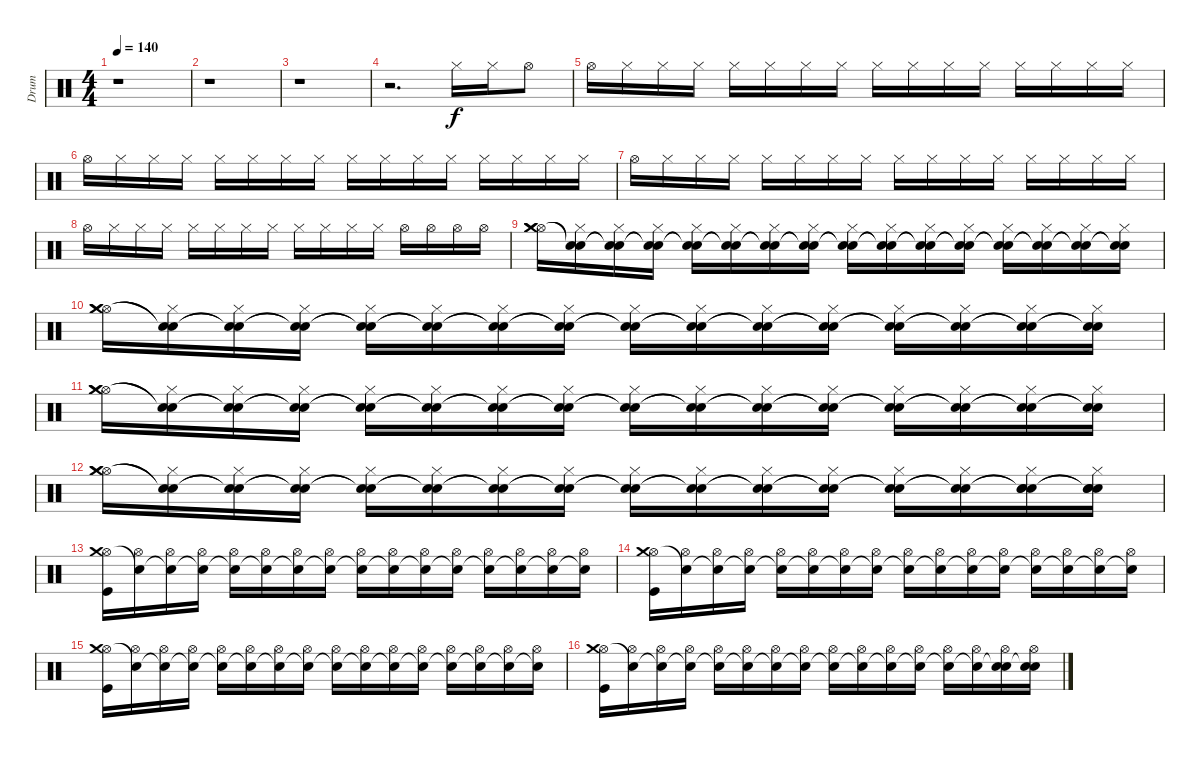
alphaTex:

\track ("Drum" "Drum") {instrument percussion}
\staff {score}
\articulation defaults
\ts (4 4)
\tempo 140
\clef neutral
\ks c
r.1{dy f} |
r.1 |
r.1 |
r.2{d} "Hi-Hat (closed)".16 "Hi-Hat (closed)".16 "Hi-Hat (open)".8 |
"Hi-Hat (open)".16 "Hi-Hat (closed)".16 "Hi-Hat (closed)".16 "Hi-Hat (closed)".16 "Hi-Hat (closed)".16 "Hi-Hat (closed)".16 "Hi-Hat (closed)".16 "Hi-Hat (closed)".16 "Hi-Hat (closed)".16 "Hi-Hat (closed)".16 "Hi-Hat (closed)".16 "Hi-Hat (closed)".16 "Hi-Hat (closed)".16 "Hi-Hat (closed)".16 "Hi-Hat (closed)".16 "Hi-Hat (closed)".16 |
"Hi-Hat (open)".16 "Hi-Hat (closed)".16 "Hi-Hat (closed)".16 "Hi-Hat (closed)".16 "Hi-Hat (closed)".16 "Hi-Hat (closed)".16 "Hi-Hat (closed)".16 "Hi-Hat (closed)".16 "Hi-Hat (closed)".16 "Hi-Hat (closed)".16 "Hi-Hat (closed)".16 "Hi-Hat (closed)".16 "Hi-Hat (closed)".16 "Hi-Hat (closed)".16 "Hi-Hat (closed)".16 "Hi-Hat (closed)".16 |
"Hi-Hat (open)".16 "Hi-Hat (closed)".16 "Hi-Hat (closed)".16 "Hi-Hat (closed)".16 "Hi-Hat (closed)".16 "Hi-Hat (closed)".16 "Hi-Hat (closed)".16 "Hi-Hat (closed)".16 "Hi-Hat (closed)".16 "Hi-Hat (closed)".16 "Hi-Hat (closed)".16 "Hi-Hat (closed)".16 "Hi-Hat (closed)".16 "Hi-Hat (closed)".16 "Hi-Hat (closed)".16 "Hi-Hat (closed)".16 |
"Hi-Hat (open)".16 "Hi-Hat (closed)".16 "Hi-Hat (closed)".16 "Hi-Hat (closed)".16 "Hi-Hat (closed)".16 "Hi-Hat (closed)".16 "Hi-Hat (closed)".16 "Hi-Hat (closed)".16 "Hi-Hat (closed)".16 "Hi-Hat (closed)".16 "Hi-Hat (closed)".16 "Hi-Hat (closed)".16 "Hi-Hat (open)".16 "Hi-Hat (open)".16 "Hi-Hat (open)".16 "Hi-Hat (open)".16 |
("Hi-Hat (open)" "Crash medium (hit)" "Crash medium (hit)").16 ("Hi-Hat (closed)" "Snare (hit)"{t} "Snare (hit)"{t}).16 ("Hi-Hat (closed)" "Snare (hit)"{t} "Snare (hit)"{t}).16 ("Hi-Hat (closed)" "Snare (hit)"{t} "Snare (hit)"{t}).16 ("Hi-Hat (closed)" "Snare (hit)"{t} "Snare (hit)"{t}).16 ("Hi-Hat (closed)" "Snare (hit)"{t} "Snare (hit)"{t}).16 ("Hi-Hat (closed)" "Snare (hit)"{t} "Snare (hit)"{t}).16 ("Hi-Hat (closed)" "Snare (hit)"{t} "Snare (hit)"{t}).16 ("Hi-Hat (closed)" "Snare (hit)"{t} "Snare (hit)"{t}).16 ("Hi-Hat (closed)" "Snare (hit)"{t} "Snare (hit)"{t}).16 ("Hi-Hat (closed)" "Snare (hit)"{t} "Snare (hit)"{t}).16 ("Hi-Hat (closed)" "Snare (hit)"{t} "Snare (hit)"{t}).16 ("Hi-Hat (closed)" "Snare (hit)"{t} "Snare (hit)"{t}).16 ("Hi-Hat (closed)" "Snare (hit)"{t} "Snare (hit)"{t}).16 ("Hi-Hat (closed)" "Snare (hit)"{t} "Snare (hit)"{t}).16 ("Hi-Hat (closed)" "Snare (hit)"{t} "Snare (hit)"{t}).16 |
("Hi-Hat (open)" "Crash medium (hit)" "Crash medium (hit)").16 ("Hi-Hat (closed)" "Snare (hit)"{t} "Snare (hit)"{t}).16 ("Hi-Hat (closed)" "Snare (hit)"{t} "Snare (hit)"{t}).16 ("Hi-Hat (closed)" "Snare (hit)"{t} "Snare (hit)"{t}).16 ("Hi-Hat (closed)" "Snare (hit)"{t} "Snare (hit)"{t}).16 ("Hi-Hat (closed)" "Snare (hit)"{t} "Snare (hit)"{t}).16 ("Hi-Hat (closed)" "Snare (hit)"{t} "Snare (hit)"{t}).16 ("Hi-Hat (closed)" "Snare (hit)"{t} "Snare (hit)"{t}).16 ("Hi-Hat (closed)" "Snare (hit)"{t} "Snare (hit)"{t}).16 ("Hi-Hat (closed)" "Snare (hit)"{t} "Snare (hit)"{t}).16 ("Hi-Hat (closed)" "Snare (hit)"{t} "Snare (hit)"{t}).16 ("Hi-Hat (closed)" "Snare (hit)"{t} "Snare (hit)"{t}).16 ("Hi-Hat (closed)" "Snare (hit)"{t} "Snare (hit)"{t}).16 ("Hi-Hat (closed)" "Snare (hit)"{t} "Snare (hit)"{t}).16 ("Hi-Hat (closed)" "Snare (hit)"{t} "Snare (hit)"{t}).16 ("Hi-Hat (closed)" "Snare (hit)"{t} "Snare (hit)"{t}).16 |
("Hi-Hat (open)" "Crash medium (hit)" "Crash medium (hit)").16 ("Hi-Hat (closed)" "Snare (hit)"{t} "Snare (hit)"{t}).16 ("Hi-Hat (closed)" "Snare (hit)"{t} "Snare (hit)"{t}).16 ("Hi-Hat (closed)" "Snare (hit)"{t} "Snare (hit)"{t}).16 ("Hi-Hat (closed)" "Snare (hit)"{t} "Snare (hit)"{t}).16 ("Hi-Hat (closed)" "Snare (hit)"{t} "Snare (hit)"{t}).16 ("Hi-Hat (closed)" "Snare (hit)"{t} "Snare (hit)"{t}).16 ("Hi-Hat (closed)" "Snare (hit)"{t} "Snare (hit)"{t}).16 ("Hi-Hat (closed)" "Snare (hit)"{t} "Snare (hit)"{t}).16 ("Hi-Hat (closed)" "Snare (hit)"{t} "Snare (hit)"{t}).16 ("Hi-Hat (closed)" "Snare (hit)"{t} "Snare (hit)"{t}).16 ("Hi-Hat (closed)" "Snare (hit)"{t} "Snare (hit)"{t}).16 ("Hi-Hat (closed)" "Snare (hit)"{t} "Snare (hit)"{t}).16 ("Hi-Hat (closed)" "Snare (hit)"{t} "Snare (hit)"{t}).16 ("Hi-Hat (closed)" "Snare (hit)"{t} "Snare (hit)"{t}).16 ("Hi-Hat (closed)" "Snare (hit)"{t} "Snare (hit)"{t}).16 |
("Hi-Hat (open)" "Crash medium (hit)" "Crash medium (hit)").16 ("Hi-Hat (closed)" "Snare (hit)"{t} "Snare (hit)"{t}).16 ("Hi-Hat (closed)" "Snare (hit)"{t} "Snare (hit)"{t}).16 ("Hi-Hat (closed)" "Snare (hit)"{t} "Snare (hit)"{t}).16 ("Hi-Hat (closed)" "Snare (hit)"{t} "Snare (hit)"{t}).16 ("Hi-Hat (closed)" "Snare (hit)"{t} "Snare (hit)"{t}).16 ("Hi-Hat (closed)" "Snare (hit)"{t} "Snare (hit)"{t}).16 ("Hi-Hat (closed)" "Snare (hit)"{t} "Snare (hit)"{t}).16 ("Hi-Hat (closed)" "Snare (hit)"{t} "Snare (hit)"{t}).16 ("Hi-Hat (closed)" "Snare (hit)"{t} "Snare (hit)"{t}).16 ("Hi-Hat (closed)" "Snare (hit)"{t} "Snare (hit)"{t}).16 ("Hi-Hat (closed)" "Snare (hit)"{t} "Snare (hit)"{t}).16 ("Hi-Hat (closed)" "Snare (hit)"{t} "Snare (hit)"{t}).16 ("Hi-Hat (closed)" "Snare (hit)"{t} "Snare (hit)"{t}).16 ("Hi-Hat (closed)" "Snare (hit)"{t} "Snare (hit)"{t} "Snare (hit) 2").16 ("Hi-Hat (closed)" "Snare (hit)"{t} "Snare (hit)"{t} "Snare (hit) 2").16 |
("Hi-Hat (open)" "Crash medium (hit)" "Kick (hit)").16 ("Hi-Hat (open)" "Snare (hit)"{t}).16 ("Hi-Hat (open)" "Snare (hit)"{t}).16 ("Hi-Hat (open)" "Snare (hit)"{t}).16 ("Hi-Hat (open)" "Snare (hit)"{t}).16 ("Hi-Hat (open)" "Snare (hit)"{t}).16 ("Hi-Hat (open)" "Snare (hit)"{t}).16 ("Hi-Hat (open)" "Snare (hit)"{t}).16 ("Hi-Hat (open)" "Snare (hit)"{t}).16 ("Hi-Hat (open)" "Snare (hit)"{t}).16 ("Hi-Hat (open)" "Snare (hit)"{t}).16 ("Hi-Hat (open)" "Snare (hit)"{t}).16 ("Hi-Hat (open)" "Snare (hit)"{t}).16 ("Hi-Hat (open)" "Snare (hit)"{t}).16 ("Hi-Hat (open)" "Snare (hit)"{t}).16 ("Hi-Hat (open)" "Snare (hit)"{t}).16 |
("Hi-Hat (open)" "Crash medium (hit)" "Kick (hit)").16 ("Hi-Hat (open)" "Snare (hit)"{t}).16 ("Hi-Hat (open)" "Snare (hit)"{t}).16 ("Hi-Hat (open)" "Snare (hit)"{t}).16 ("Hi-Hat (open)" "Snare (hit)"{t}).16 ("Hi-Hat (open)" "Snare (hit)"{t}).16 ("Hi-Hat (open)" "Snare (hit)"{t}).16 ("Hi-Hat (open)" "Snare (hit)"{t}).16 ("Hi-Hat (open)" "Snare (hit)"{t}).16 ("Hi-Hat (open)" "Snare (hit)"{t}).16 ("Hi-Hat (open)" "Snare (hit)"{t}).16 ("Hi-Hat (open)" "Snare (hit)"{t}).16 ("Hi-Hat (open)" "Snare (hit)"{t}).16 ("Hi-Hat (open)" "Snare (hit)"{t}).16 ("Hi-Hat (open)" "Snare (hit)"{t}).16 ("Hi-Hat (open)" "Snare (hit)"{t}).16 |
("Hi-Hat (open)" "Crash medium (hit)" "Kick (hit)").16 ("Hi-Hat (open)" "Snare (hit)"{t}).16 ("Hi-Hat (open)" "Snare (hit)"{t}).16 ("Hi-Hat (open)" "Snare (hit)"{t}).16 ("Hi-Hat (open)" "Snare (hit)"{t}).16 ("Hi-Hat (open)" "Snare (hit)"{t}).16 ("Hi-Hat (open)" "Snare (hit)"{t}).16 ("Hi-Hat (open)" "Snare (hit)"{t}).16 ("Hi-Hat (open)" "Snare (hit)"{t}).16 ("Hi-Hat (open)" "Snare (hit)"{t}).16 ("Hi-Hat (open)" "Snare (hit)"{t}).16 ("Hi-Hat (open)" "Snare (hit)"{t}).16 ("Hi-Hat (open)" "Snare (hit)"{t}).16 ("Hi-Hat (open)" "Snare (hit)"{t}).16 ("Hi-Hat (open)" "Snare (hit)"{t}).16 ("Hi-Hat (open)" "Snare (hit)"{t}).16 |
("Hi-Hat (open)" "Crash medium (hit)" "Kick (hit)").16 ("Hi-Hat (open)" "Snare (hit)"{t}).16 ("Hi-Hat (open)" "Snare (hit)"{t}).16 ("Hi-Hat (open)" "Snare (hit)"{t}).16 ("Hi-Hat (open)" "Snare (hit)"{t}).16 ("Hi-Hat (open)" "Snare (hit)"{t}).16 ("Hi-Hat (open)" "Snare (hit)"{t}).16 ("Hi-Hat (open)" "Snare (hit)"{t}).16 ("Hi-Hat (open)" "Snare (hit)"{t}).16 ("Hi-Hat (open)" "Snare (hit)"{t}).16 ("Hi-Hat (open)" "Snare (hit)"{t}).16 ("Hi-Hat (open)" "Snare (hit)"{t}).16 ("Hi-Hat (open)" "Snare (hit)"{t}).16 ("Hi-Hat (open)" "Snare (hit)"{t}).16 ("Hi-Hat (open)" "Snare (hit)"{t} "Snare (hit) 2").16 ("Hi-Hat (open)" "Snare (hit)"{t} "Snare (hit) 2").16
